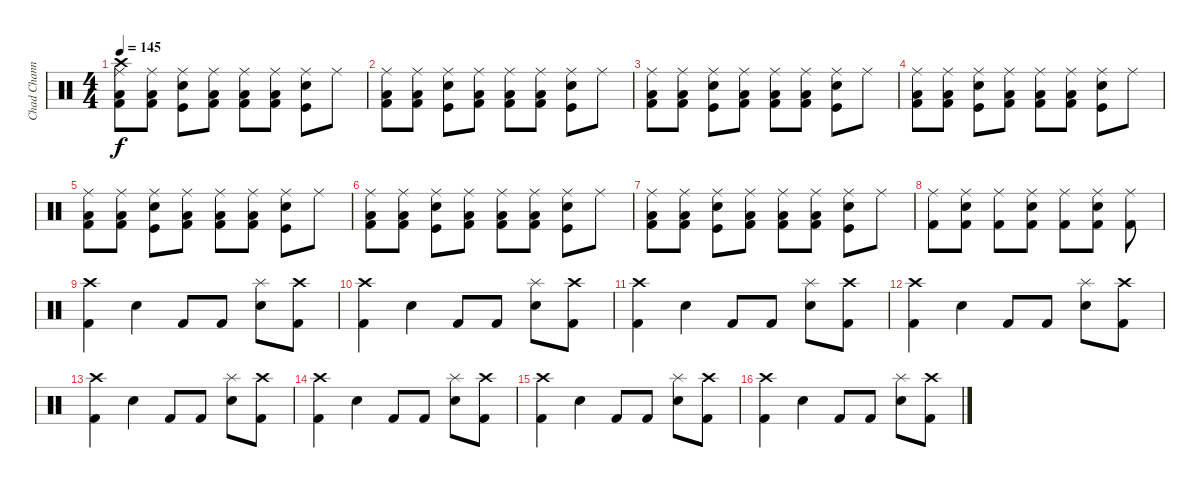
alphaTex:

\track ("Chad Channing" "Chad Chann") {instrument percussion}
\staff {score}
\articulation defaults
\ts (4 4)
\tempo 145
\clef neutral
\ks c
("Crash high (hit)" "Ride (middle)" "Low Floor Tom (hit)" "Kick (hit) 2").8{dy f} ("Ride (middle)" "Low Floor Tom (hit)" "Kick (hit) 2").8 ("Snare (hit) 2" "Ride (middle)" "Kick (hit)").8 ("Ride (middle)" "Low Floor Tom (hit)" "Kick (hit) 2").8 ("Ride (middle)" "Low Floor Tom (hit)" "Kick (hit) 2").8 ("Ride (middle)" "Low Floor Tom (hit)" "Kick (hit) 2").8 ("Snare (hit) 2" "Ride (middle)" "Kick (hit)").8 "Ride (middle)".8 |
("Ride (middle)" "Low Floor Tom (hit)" "Kick (hit) 2").8 ("Ride (middle)" "Low Floor Tom (hit)" "Kick (hit) 2").8 ("Snare (hit) 2" "Ride (middle)" "Kick (hit)").8 ("Ride (middle)" "Low Floor Tom (hit)" "Kick (hit) 2").8 ("Ride (middle)" "Low Floor Tom (hit)" "Kick (hit) 2").8 ("Ride (middle)" "Low Floor Tom (hit)" "Kick (hit) 2").8 ("Snare (hit) 2" "Ride (middle)" "Kick (hit)").8 "Ride (middle)".8 |
("Ride (middle)" "Low Floor Tom (hit)" "Kick (hit) 2").8 ("Ride (middle)" "Low Floor Tom (hit)" "Kick (hit) 2").8 ("Snare (hit) 2" "Ride (middle)" "Kick (hit)").8 ("Ride (middle)" "Low Floor Tom (hit)" "Kick (hit) 2").8 ("Ride (middle)" "Low Floor Tom (hit)" "Kick (hit) 2").8 ("Ride (middle)" "Low Floor Tom (hit)" "Kick (hit) 2").8 ("Snare (hit) 2" "Ride (middle)" "Kick (hit)").8 "Ride (middle)".8 |
("Ride (middle)" "Low Floor Tom (hit)" "Kick (hit) 2").8 ("Ride (middle)" "Low Floor Tom (hit)" "Kick (hit) 2").8 ("Snare (hit) 2" "Ride (middle)" "Kick (hit)").8 ("Ride (middle)" "Low Floor Tom (hit)" "Kick (hit) 2").8 ("Ride (middle)" "Low Floor Tom (hit)" "Kick (hit) 2").8 ("Ride (middle)" "Low Floor Tom (hit)" "Kick (hit) 2").8 ("Snare (hit) 2" "Ride (middle)" "Kick (hit)").8 "Ride (middle)".8 |
("Ride (middle)" "Low Floor Tom (hit)" "Kick (hit) 2").8 ("Ride (middle)" "Low Floor Tom (hit)" "Kick (hit) 2").8 ("Snare (hit) 2" "Ride (middle)" "Kick (hit)").8 ("Ride (middle)" "Low Floor Tom (hit)" "Kick (hit) 2").8 ("Ride (middle)" "Low Floor Tom (hit)" "Kick (hit) 2").8 ("Ride (middle)" "Low Floor Tom (hit)" "Kick (hit) 2").8 ("Snare (hit) 2" "Ride (middle)" "Kick (hit)").8 "Ride (middle)".8 |
("Ride (middle)" "Low Floor Tom (hit)" "Kick (hit) 2").8 ("Ride (middle)" "Low Floor Tom (hit)" "Kick (hit) 2").8 ("Snare (hit) 2" "Ride (middle)" "Kick (hit)").8 ("Ride (middle)" "Low Floor Tom (hit)" "Kick (hit) 2").8 ("Ride (middle)" "Low Floor Tom (hit)" "Kick (hit) 2").8 ("Ride (middle)" "Low Floor Tom (hit)" "Kick (hit) 2").8 ("Snare (hit) 2" "Ride (middle)" "Kick (hit)").8 "Ride (middle)".8 |
("Ride (middle)" "Low Floor Tom (hit)" "Kick (hit) 2").8 ("Ride (middle)" "Low Floor Tom (hit)" "Kick (hit) 2").8 ("Snare (hit) 2" "Ride (middle)" "Kick (hit)").8 ("Ride (middle)" "Low Floor Tom (hit)" "Kick (hit) 2").8 ("Ride (middle)" "Low Floor Tom (hit)" "Kick (hit) 2").8 ("Ride (middle)" "Low Floor Tom (hit)" "Kick (hit) 2").8 ("Snare (hit) 2" "Ride (middle)" "Kick (hit)").8 "Ride (middle)".8 |
("Ride (middle)" "Kick (hit) 2").8 ("Snare (hit) 2" "Ride (middle)" "Kick (hit) 2").8 ("Ride (middle)" "Kick (hit) 2").8 ("Snare (hit) 2" "Ride (middle)" "Kick (hit) 2").8 ("Ride (middle)" "Kick (hit) 2").8 ("Snare (hit) 2" "Ride (middle)" "Kick (hit) 2").8 ("Ride (middle)" "Kick (hit) 2").8 |
("Crash high (hit)" "Kick (hit) 2").4 "Snare (hit) 2".4 "Kick (hit) 2".8 "Kick (hit) 2".8 ("Splash (hit)" "Snare (hit) 2").8 ("Crash high (hit)" "Kick (hit) 2").8 |
("Crash high (hit)" "Kick (hit) 2").4 "Snare (hit) 2".4 "Kick (hit) 2".8 "Kick (hit) 2".8 ("Splash (hit)" "Snare (hit) 2").8 ("Crash high (hit)" "Kick (hit) 2").8 |
("Crash high (hit)" "Kick (hit) 2").4 "Snare (hit) 2".4 "Kick (hit) 2".8 "Kick (hit) 2".8 ("Splash (hit)" "Snare (hit) 2").8 ("Crash high (hit)" "Kick (hit) 2").8 |
("Crash high (hit)" "Kick (hit) 2").4 "Snare (hit) 2".4 "Kick (hit) 2".8 "Kick (hit) 2".8 ("Splash (hit)" "Snare (hit) 2").8 ("Crash high (hit)" "Kick (hit) 2").8 |
("Crash high (hit)" "Kick (hit) 2").4 "Snare (hit) 2".4 "Kick (hit) 2".8 "Kick (hit) 2".8 ("Splash (hit)" "Snare (hit) 2").8 ("Crash high (hit)" "Kick (hit) 2").8 |
("Crash high (hit)" "Kick (hit) 2").4 "Snare (hit) 2".4 "Kick (hit) 2".8 "Kick (hit) 2".8 ("Splash (hit)" "Snare (hit) 2").8 ("Crash high (hit)" "Kick (hit) 2").8 |
("Crash high (hit)" "Kick (hit) 2").4 "Snare (hit) 2".4 "Kick (hit) 2".8 "Kick (hit) 2".8 ("Splash (hit)" "Snare (hit) 2").8 ("Crash high (hit)" "Kick (hit) 2").8 |
("Crash high (hit)" "Kick (hit) 2").4 "Snare (hit) 2".4 "Kick (hit) 2".8 "Kick (hit) 2".8 ("Splash (hit)" "Snare (hit) 2").8 ("Crash high (hit)" "Kick (hit) 2").8
